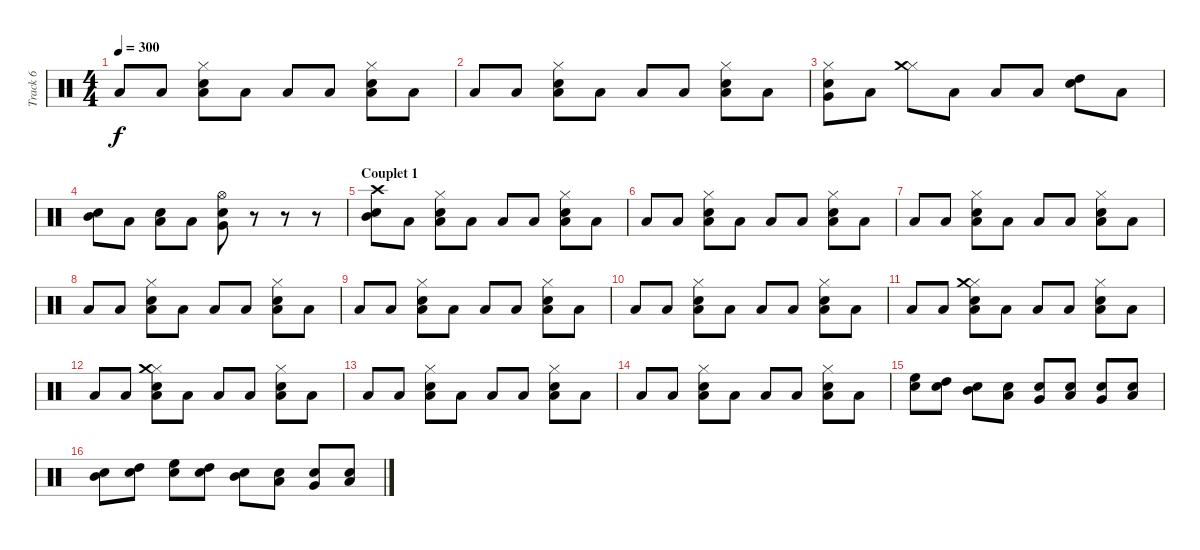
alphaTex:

\track ("Track 6" "Track 6") {instrument percussion}
\staff {score}
\articulation defaults
\ts (4 4)
\tempo 300
\clef neutral
\ks c "Low Floor Tom (hit)".8{dy f} "Low Floor Tom (hit)".8
("Electric Snare (hit)" "Low Tom (hit)" "Hi-Hat (closed)").8 "Low Floor Tom (hit)".8 "Low Floor Tom (hit)".8 "Low Floor Tom (hit)".8 ("Electric Snare (hit)" "Low Tom (hit)" "Hi-Hat (closed)").8 "Low Floor Tom (hit)".8 |
"Low Floor Tom (hit)".8 "Low Floor Tom (hit)".8 ("Electric Snare (hit)" "Low Tom (hit)" "Hi-Hat (closed)").8 "Low Floor Tom (hit)".8 "Low Floor Tom (hit)".8 "Low Floor Tom (hit)".8 ("Electric Snare (hit)" "Low Tom (hit)" "Hi-Hat (closed)").8 "Low Floor Tom (hit)".8 |
("Snare (hit) 2" "Very Low Tom (hit)" "Hi-Hat (closed)").8 "Low Floor Tom (hit)".8 ("Hi-Hat (closed)" "Crash medium (hit)").8 "Low Floor Tom (hit)".8 "Low Floor Tom (hit)".8 "Low Floor Tom (hit)".8 ("High Tom (hit)" "Snare (hit) 2").8 "Low Floor Tom (hit)".8 |
("Mid Tom (hit)" "Snare (hit) 2").8 "Low Floor Tom (hit)".8 ("Low Tom (hit)" "Snare (hit) 2").8 "Low Floor Tom (hit)".8 ("Very Low Tom (hit)" "Snare (hit) 2" "Hi-Hat (open)").8 r.8 r.8 r.8 |
\section ("" "Couplet 1")
("Snare (hit) 2" "Mid Tom (hit)" "Crash high (hit)").8 "Low Floor Tom (hit)".8 ("Electric Snare (hit)" "Low Tom (hit)" "Hi-Hat (closed)").8 "Low Floor Tom (hit)".8 "Low Floor Tom (hit)".8 "Low Floor Tom (hit)".8 ("Electric Snare (hit)" "Low Tom (hit)" "Hi-Hat (closed)").8 "Low Floor Tom (hit)".8 |
"Low Floor Tom (hit)".8 "Low Floor Tom (hit)".8 ("Electric Snare (hit)" "Low Tom (hit)" "Hi-Hat (closed)").8 "Low Floor Tom (hit)".8 "Low Floor Tom (hit)".8 "Low Floor Tom (hit)".8 ("Electric Snare (hit)" "Low Tom (hit)" "Hi-Hat (closed)").8 "Low Floor Tom (hit)".8 |
"Low Floor Tom (hit)".8 "Low Floor Tom (hit)".8 ("Electric Snare (hit)" "Low Tom (hit)" "Hi-Hat (closed)").8 "Low Floor Tom (hit)".8 "Low Floor Tom (hit)".8 "Low Floor Tom (hit)".8 ("Electric Snare (hit)" "Low Tom (hit)" "Hi-Hat (closed)").8 "Low Floor Tom (hit)".8 |
"Low Floor Tom (hit)".8 "Low Floor Tom (hit)".8 ("Electric Snare (hit)" "Low Tom (hit)" "Hi-Hat (closed)").8 "Low Floor Tom (hit)".8 "Low Floor Tom (hit)".8 "Low Floor Tom (hit)".8 ("Electric Snare (hit)" "Low Tom (hit)" "Hi-Hat (closed)").8 "Low Floor Tom (hit)".8 |
"Low Floor Tom (hit)".8 "Low Floor Tom (hit)".8 ("Electric Snare (hit)" "Low Tom (hit)" "Hi-Hat (closed)").8 "Low Floor Tom (hit)".8 "Low Floor Tom (hit)".8 "Low Floor Tom (hit)".8 ("Electric Snare (hit)" "Low Tom (hit)" "Hi-Hat (closed)").8 "Low Floor Tom (hit)".8 |
"Low Floor Tom (hit)".8 "Low Floor Tom (hit)".8 ("Electric Snare (hit)" "Low Tom (hit)" "Hi-Hat (closed)").8 "Low Floor Tom (hit)".8 "Low Floor Tom (hit)".8 "Low Floor Tom (hit)".8 ("Electric Snare (hit)" "Low Tom (hit)" "Hi-Hat (closed)").8 "Low Floor Tom (hit)".8 |
"Low Floor Tom (hit)".8 "Low Floor Tom (hit)".8 ("Electric Snare (hit)" "Low Tom (hit)" "Hi-Hat (closed)" "Crash medium (hit)").8 "Low Floor Tom (hit)".8 "Low Floor Tom (hit)".8 "Low Floor Tom (hit)".8 ("Electric Snare (hit)" "Low Tom (hit)" "Hi-Hat (closed)").8 "Low Floor Tom (hit)".8 |
"Low Floor Tom (hit)".8 "Low Floor Tom (hit)".8 ("Electric Snare (hit)" "Low Tom (hit)" "Hi-Hat (closed)" "Crash medium (hit)").8 "Low Floor Tom (hit)".8 "Low Floor Tom (hit)".8 "Low Floor Tom (hit)".8 ("Electric Snare (hit)" "Low Tom (hit)" "Hi-Hat (closed)").8 "Low Floor Tom (hit)".8 |
"Low Floor Tom (hit)".8 "Low Floor Tom (hit)".8 ("Electric Snare (hit)" "Low Tom (hit)" "Hi-Hat (closed)").8 "Low Floor Tom (hit)".8 "Low Floor Tom (hit)".8 "Low Floor Tom (hit)".8 ("Electric Snare (hit)" "Low Tom (hit)" "Hi-Hat (closed)").8 "Low Floor Tom (hit)".8 |
"Low Floor Tom (hit)".8 "Low Floor Tom (hit)".8 ("Electric Snare (hit)" "Low Tom (hit)" "Hi-Hat (closed)").8 "Low Floor Tom (hit)".8 "Low Floor Tom (hit)".8 "Low Floor Tom (hit)".8 ("Electric Snare (hit)" "Low Tom (hit)" "Hi-Hat (closed)").8 "Low Floor Tom (hit)".8 |
("High Floor Tom (hit)" "Electric Snare (hit)").8 ("High Tom (hit)" "Electric Snare (hit)").8 ("Mid Tom (hit)" "Electric Snare (hit)").8 ("Low Tom (hit)" "Electric Snare (hit)").8 ("Very Low Tom (hit)" "Electric Snare (hit)").8 ("Low Floor Tom (hit)" "Electric Snare (hit)").8 ("Very Low Tom (hit)" "Electric Snare (hit)").8 ("Low Tom (hit)" "Electric Snare (hit)").8 |
("Mid Tom (hit)" "Electric Snare (hit)").8 ("High Tom (hit)" "Electric Snare (hit)").8 ("High Floor Tom (hit)" "Electric Snare (hit)").8 ("High Tom (hit)" "Electric Snare (hit)").8 ("Mid Tom (hit)" "Snare (hit) 2").8 ("Low Tom (hit)" "Snare (hit) 2").8 ("Very Low Tom (hit)" "Snare (hit) 2").8 ("Low Floor Tom (hit)" "Snare (hit) 2").8
